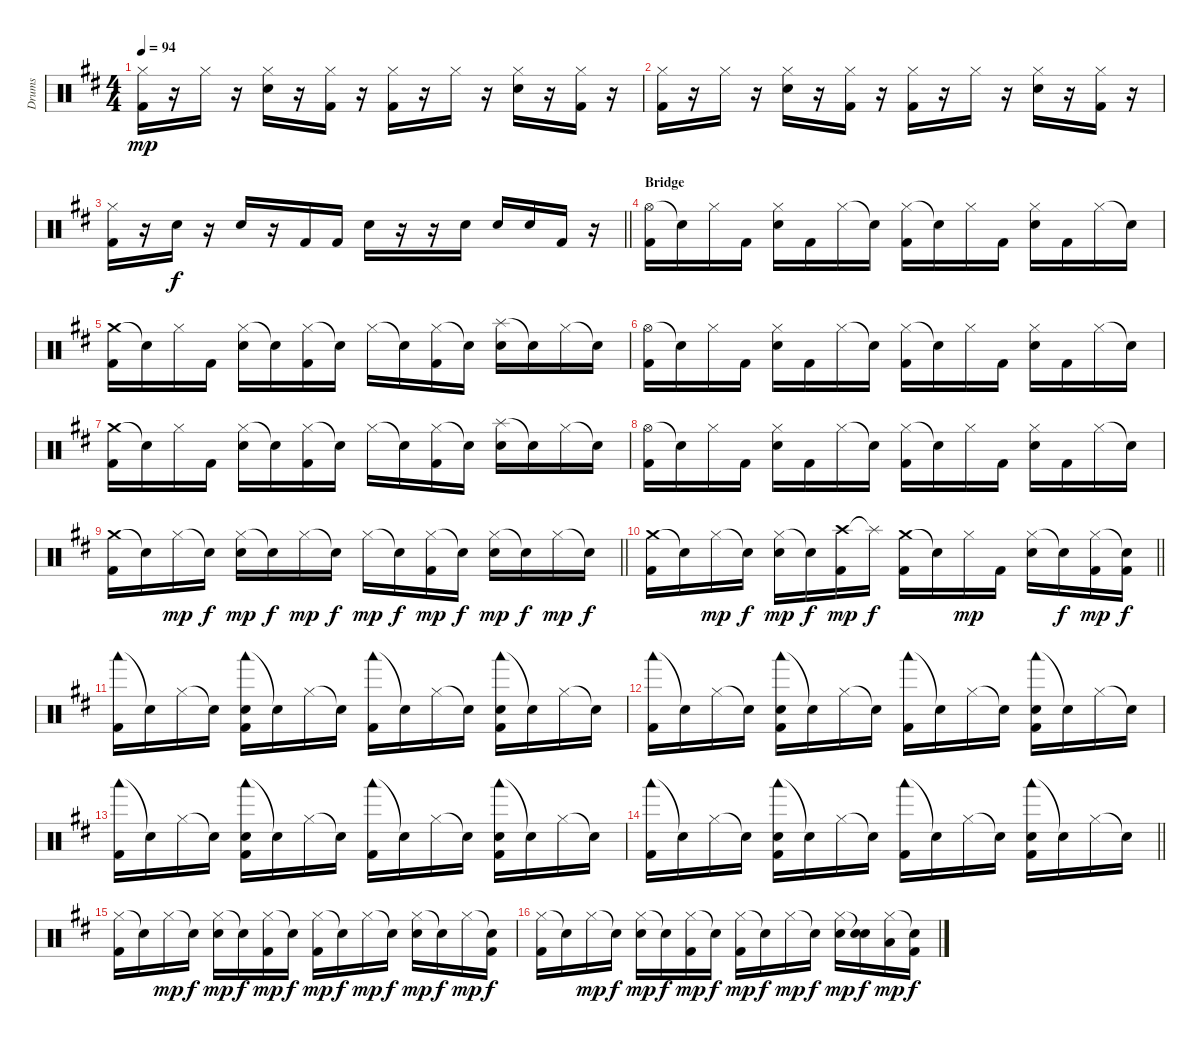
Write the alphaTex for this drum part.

\track ("Drums" "Drums") {instrument percussion}
\staff {score}
\articulation defaults
\ts (4 4)
\tempo 94
\clef neutral
\ks d
("Hi-Hat (closed)" "Kick (hit) 2").16{dy mp} r.16 "Hi-Hat (closed)".16 r.16 ("Hi-Hat (closed)" "Snare (hit) 2").16 r.16 ("Hi-Hat (closed)" "Kick (hit) 2").16 r.16 ("Hi-Hat (closed)" "Kick (hit) 2").16 r.16 "Hi-Hat (closed)".16 r.16 ("Hi-Hat (closed)" "Snare (hit) 2").16 r.16 ("Hi-Hat (closed)" "Kick (hit) 2").16 r.16 |
("Hi-Hat (closed)" "Kick (hit) 2").16 r.16 "Hi-Hat (closed)".16 r.16 ("Hi-Hat (closed)" "Snare (hit) 2").16 r.16 ("Hi-Hat (closed)" "Kick (hit) 2").16 r.16 ("Hi-Hat (closed)" "Kick (hit) 2").16 r.16 "Hi-Hat (closed)".16 r.16 ("Hi-Hat (closed)" "Snare (hit) 2").16 r.16 ("Hi-Hat (closed)" "Kick (hit) 2").16 r.16 |
\barLineRight lightlight
("Hi-Hat (closed)" "Kick (hit) 2").16 r.16 "Snare (hit) 2".16{dy f} r.16 "Snare (hit) 2".16 r.16 "Kick (hit) 2".16 "Kick (hit) 2".16 "Snare (hit) 2".16 r.16 r.16 "Snare (hit) 2".16 "Snare (hit) 2".16 "Snare (hit) 2".16 "Kick (hit) 2".16 r.16 |
\section ("" "Bridge")
("Hi-Hat (open)" "Kick (hit) 2").16 "Snare (hit)"{t}.16 "Hi-Hat (closed)".16 "Kick (hit) 2".16 ("Hi-Hat (closed)" "Snare (hit) 2").16 "Kick (hit) 2".16 "Hi-Hat (closed)".16 "Snare (hit)"{t}.16 ("Hi-Hat (closed)" "Kick (hit) 2").16 "Snare (hit)"{t}.16 "Hi-Hat (closed)".16 "Kick (hit) 2".16 ("Hi-Hat (closed)" "Snare (hit) 2").16 "Kick (hit) 2".16 "Hi-Hat (closed)".16 "Snare (hit)"{t}.16 |
("Crash medium (hit)" "Kick (hit) 2").16 "Snare (hit)"{t}.16 "Hi-Hat (closed)".16 "Kick (hit) 2".16 ("Hi-Hat (closed)" "Snare (hit) 2").16 "Snare (hit)"{t}.16 ("Hi-Hat (closed)" "Kick (hit) 2").16 "Snare (hit)"{t}.16 "Hi-Hat (closed)".16 "Snare (hit)"{t}.16 ("Hi-Hat (closed)" "Kick (hit) 2").16 "Snare (hit)"{t}.16 ("Splash (hit)" "Snare (hit) 2").16 "Snare (hit)"{t}.16 "Hi-Hat (closed)".16 "Snare (hit)"{t}.16 |
("Hi-Hat (open)" "Kick (hit) 2").16 "Snare (hit)"{t}.16 "Hi-Hat (closed)".16 "Kick (hit) 2".16 ("Hi-Hat (closed)" "Snare (hit) 2").16 "Kick (hit) 2".16 "Hi-Hat (closed)".16 "Snare (hit)"{t}.16 ("Hi-Hat (closed)" "Kick (hit) 2").16 "Snare (hit)"{t}.16 "Hi-Hat (closed)".16 "Kick (hit) 2".16 ("Hi-Hat (closed)" "Snare (hit) 2").16 "Kick (hit) 2".16 "Hi-Hat (closed)".16 "Snare (hit)"{t}.16 |
("Crash medium (hit)" "Kick (hit) 2").16 "Snare (hit)"{t}.16 "Hi-Hat (closed)".16 "Kick (hit) 2".16 ("Hi-Hat (closed)" "Snare (hit) 2").16 "Snare (hit)"{t}.16 ("Hi-Hat (closed)" "Kick (hit) 2").16 "Snare (hit)"{t}.16 "Hi-Hat (closed)".16 "Snare (hit)"{t}.16 ("Hi-Hat (closed)" "Kick (hit) 2").16 "Snare (hit)"{t}.16 ("Splash (hit)" "Snare (hit) 2").16 "Snare (hit)"{t}.16 "Hi-Hat (closed)".16 "Snare (hit)"{t}.16 |
("Hi-Hat (open)" "Kick (hit) 2").16 "Snare (hit)"{t}.16 "Hi-Hat (closed)".16 "Kick (hit) 2".16 ("Hi-Hat (closed)" "Snare (hit) 2").16 "Kick (hit) 2".16 "Hi-Hat (closed)".16 "Snare (hit)"{t}.16 ("Hi-Hat (closed)" "Kick (hit) 2").16 "Snare (hit)"{t}.16 "Hi-Hat (closed)".16 "Kick (hit) 2".16 ("Hi-Hat (closed)" "Snare (hit) 2").16 "Kick (hit) 2".16 "Hi-Hat (closed)".16 "Snare (hit)"{t}.16 |
\barLineRight lightlight
("Crash medium (hit)" "Kick (hit) 2").16 "Snare (hit)"{t}.16 "Hi-Hat (closed)".16{dy mp} "Snare (hit)"{t}.16{dy f} ("Hi-Hat (closed)" "Snare (hit) 2").16{dy mp} "Snare (hit)"{t}.16{dy f} "Hi-Hat (closed)".16{dy mp} "Snare (hit)"{t}.16{dy f} "Hi-Hat (closed)".16{dy mp} "Snare (hit)"{t}.16{dy f} ("Hi-Hat (closed)" "Kick (hit) 2").16{dy mp} "Snare (hit)"{t}.16{dy f} ("Hi-Hat (closed)" "Snare (hit) 2").16{dy mp} "Snare (hit)"{t}.16{dy f} "Hi-Hat (closed)".16{dy mp} "Snare (hit)"{t}.16{dy f} |
\barLineRight lightlight
("Crash medium (hit)" "Kick (hit) 2").16 "Snare (hit)"{t}.16 "Hi-Hat (closed)".16{dy mp} "Snare (hit)"{t}.16{dy f} ("Hi-Hat (closed)" "Snare (hit) 2").16{dy mp} "Snare (hit)"{t}.16{dy f} ("Crash high (hit)" "Kick (hit) 2").16{dy mp} "Splash (hit)"{t}.16{dy f} ("Crash medium (hit)" "Kick (hit) 2").16 "Snare (hit)"{t}.16 "Hi-Hat (closed)".16{dy mp} "Kick (hit) 2".16 ("Hi-Hat (closed)" "Snare (hit) 2").16 "Snare (hit)"{t}.16{dy f} ("Hi-Hat (closed)" "Kick (hit) 2").16{dy mp} ("Snare (hit)"{t} "Kick (hit) 2").16{dy f} |
("Woodblock low (hit)" "Kick (hit) 2").16 "Snare (hit)"{t}.16 "Hi-Hat (closed)".16 "Snare (hit)"{t}.16 ("Woodblock low (hit)" "Electric Snare (hit)" "Kick (hit) 2").16 "Snare (hit)"{t}.16 "Hi-Hat (closed)".16 "Snare (hit)"{t}.16 ("Woodblock low (hit)" "Kick (hit) 2").16 "Snare (hit)"{t}.16 "Hi-Hat (closed)".16 "Snare (hit)"{t}.16 ("Woodblock low (hit)" "Electric Snare (hit)" "Kick (hit) 2").16 "Snare (hit)"{t}.16 "Hi-Hat (closed)".16 "Snare (hit)"{t}.16 |
("Woodblock low (hit)" "Kick (hit) 2").16 "Snare (hit)"{t}.16 "Hi-Hat (closed)".16 "Snare (hit)"{t}.16 ("Woodblock low (hit)" "Electric Snare (hit)" "Kick (hit) 2").16 "Snare (hit)"{t}.16 "Hi-Hat (closed)".16 "Snare (hit)"{t}.16 ("Woodblock low (hit)" "Kick (hit) 2").16 "Snare (hit)"{t}.16 "Hi-Hat (closed)".16 "Snare (hit)"{t}.16 ("Woodblock low (hit)" "Electric Snare (hit)" "Kick (hit) 2").16 "Snare (hit)"{t}.16 "Hi-Hat (closed)".16 "Snare (hit)"{t}.16 |
("Woodblock low (hit)" "Kick (hit) 2").16 "Snare (hit)"{t}.16 "Hi-Hat (closed)".16 "Snare (hit)"{t}.16 ("Woodblock low (hit)" "Electric Snare (hit)" "Kick (hit) 2").16 "Snare (hit)"{t}.16 "Hi-Hat (closed)".16 "Snare (hit)"{t}.16 ("Woodblock low (hit)" "Kick (hit) 2").16 "Snare (hit)"{t}.16 "Hi-Hat (closed)".16 "Snare (hit)"{t}.16 ("Woodblock low (hit)" "Electric Snare (hit)" "Kick (hit) 2").16 "Snare (hit)"{t}.16 "Hi-Hat (closed)".16 "Snare (hit)"{t}.16 |
\barLineRight lightlight
("Woodblock low (hit)" "Kick (hit) 2").16 "Snare (hit)"{t}.16 "Hi-Hat (closed)".16 "Snare (hit)"{t}.16 ("Woodblock low (hit)" "Electric Snare (hit)" "Kick (hit) 2").16 "Snare (hit)"{t}.16 "Hi-Hat (closed)".16 "Snare (hit)"{t}.16 ("Woodblock low (hit)" "Kick (hit) 2").16 "Snare (hit)"{t}.16 "Hi-Hat (closed)".16 "Snare (hit)"{t}.16 ("Woodblock low (hit)" "Electric Snare (hit)" "Kick (hit) 2").16 "Snare (hit)"{t}.16 "Hi-Hat (closed)".16 "Snare (hit)"{t}.16 |
("Hi-Hat (closed)" "Kick (hit) 2").16 "Snare (hit)"{t}.16 "Hi-Hat (closed)".16{dy mp} "Snare (hit)"{t}.16{dy f} ("Hi-Hat (closed)" "Snare (hit) 2").16{dy mp} "Snare (hit)"{t}.16{dy f} ("Hi-Hat (closed)" "Kick (hit) 2").16{dy mp} "Snare (hit)"{t}.16{dy f} ("Hi-Hat (closed)" "Kick (hit) 2").16{dy mp} "Snare (hit)"{t}.16{dy f} "Hi-Hat (closed)".16{dy mp} "Snare (hit)"{t}.16{dy f} ("Hi-Hat (closed)" "Snare (hit) 2").16{dy mp} "Snare (hit)"{t}.16{dy f} "Hi-Hat (closed)".16{dy mp} ("Snare (hit)"{t} "Kick (hit) 2").16{dy f} |
("Hi-Hat (closed)" "Kick (hit) 2").16 "Snare (hit)"{t}.16 "Hi-Hat (closed)".16{dy mp} "Snare (hit)"{t}.16{dy f} ("Hi-Hat (closed)" "Snare (hit) 2").16{dy mp} "Snare (hit)"{t}.16{dy f} ("Hi-Hat (closed)" "Kick (hit) 2").16{dy mp} "Snare (hit)"{t}.16{dy f} ("Hi-Hat (closed)" "Kick (hit) 2").16{dy mp} "Snare (hit)"{t}.16{dy f} "Hi-Hat (closed)".16{dy mp} "Snare (hit)"{t}.16{dy f} ("Hi-Hat (closed)" "Snare (hit) 2").16{dy mp} ("Snare (hit)"{t} "Snare (hit) 2").16{dy f} ("Hi-Hat (closed)" "Low Floor Tom (hit)").16{dy mp} ("Snare (hit)"{t} "Kick (hit) 2").16{dy f}
